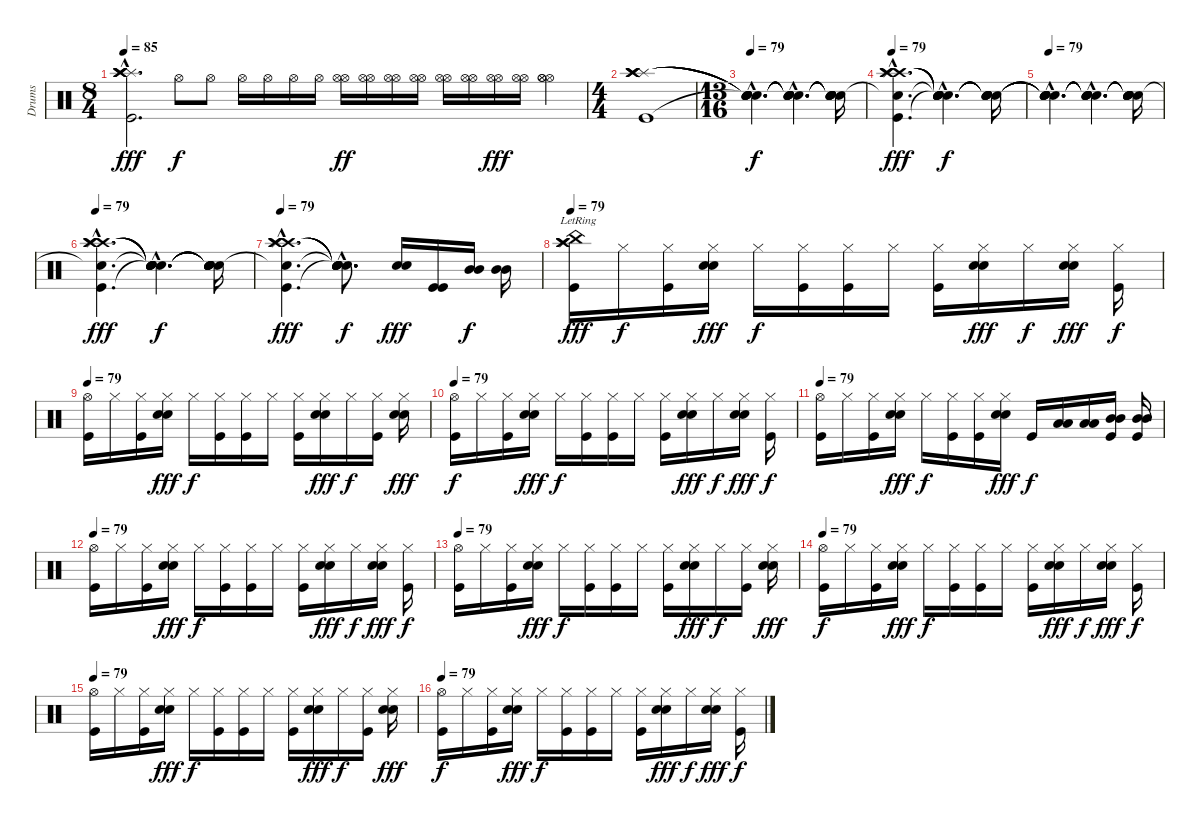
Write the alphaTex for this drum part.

\track ("Drums" "Drums") {instrument percussion}
\staff {score}
\articulation defaults
\ts (8 4)
\tempo 85
\clef neutral
\ks c
("Splash (hit)"{hac} "Crash high (hit)"{hac} "Crash high (hit)"{hac} "Crash high (hit)"{hac} "Kick (hit)"{hac}).2{d dy fff} "Hi-Hat (open)".8{dy f volume 1} "Hi-Hat (open)".8{volume 16} "Hi-Hat (open)".16 "Hi-Hat (open)".16 "Hi-Hat (open)".16 "Hi-Hat (open)".16 ("Hi-Hat (open)" "Hi-Hat (open)").16{dy ff} ("Hi-Hat (open)" "Hi-Hat (open)").16 ("Hi-Hat (open)" "Hi-Hat (open)").16 ("Hi-Hat (open)" "Hi-Hat (open)").16 ("Hi-Hat (open)" "Hi-Hat (open)").16 ("Hi-Hat (open)" "Hi-Hat (open)").16 ("Hi-Hat (open)" "Hi-Hat (open)").16{dy fff} ("Hi-Hat (open)" "Hi-Hat (open)").16 ("Hi-Hat (open)" "Hi-Hat (open)" "Hi-Hat (open)").4 |
\ts (4 4)
("Splash (hit)" "Crash high (hit)" "Crash high (hit)" "Crash high (hit)" "Kick (hit)").1 |
\ts (13 16)
\tempo 79
("Snare (hit)"{hac t} "Snare (hit)"{hac t} "Snare (hit)"{hac t} "Snare (hit)"{hac t} "Snare (hit)"{hac t} "Snare (hit)"{hac}).4{d dy f} ("Snare (hit)"{hac t} "Snare (hit)"{hac t} "Snare (hit)"{hac t} "Snare (hit)"{hac t} "Snare (hit)"{hac t} "Snare (hit)"{hac t}).4{d} ("Snare (hit)"{t} "Snare (hit)"{t} "Snare (hit)"{t} "Snare (hit)"{t} "Snare (hit)"{t} "Snare (hit)"{t}).16 |
\tempo 79
("Crash high (hit)"{hac} "Crash high (hit)"{hac} "Crash high (hit)"{hac} "Splash (hit)"{hac} "Snare (hit)"{hac t} "Kick (hit)"{hac}).4{d dy fff} ("Snare (hit)"{hac t} "Snare (hit)"{hac t} "Snare (hit)"{hac t} "Snare (hit)"{hac t} "Snare (hit)"{hac t} "Snare (hit)"{hac t}).4{d dy f} ("Snare (hit)"{t} "Snare (hit)"{t} "Snare (hit)"{t} "Snare (hit)"{t} "Snare (hit)"{t} "Snare (hit)"{t}).16 |
\tempo 79
("Snare (hit)"{hac t} "Snare (hit)"{hac t} "Snare (hit)"{hac t} "Snare (hit)"{hac t} "Snare (hit)"{hac t} "Snare (hit)"{hac t}).4{d} ("Snare (hit)"{hac t} "Snare (hit)"{hac t} "Snare (hit)"{hac t} "Snare (hit)"{hac t} "Snare (hit)"{hac t} "Snare (hit)"{hac t}).4{d} ("Snare (hit)"{t} "Snare (hit)"{t} "Snare (hit)"{t} "Snare (hit)"{t} "Snare (hit)"{t} "Snare (hit)"{t}).16 |
\tempo 79
("Crash high (hit)"{hac} "Crash high (hit)"{hac} "Crash high (hit)"{hac} "Splash (hit)"{hac} "Snare (hit)"{hac t} "Kick (hit)"{hac}).4{d dy fff} ("Snare (hit)"{hac t} "Snare (hit)"{hac t} "Snare (hit)"{hac t} "Snare (hit)"{hac t} "Snare (hit)"{hac t} "Snare (hit)"{hac t}).4{d dy f} ("Snare (hit)"{t} "Snare (hit)"{t} "Snare (hit)"{t} "Snare (hit)"{t} "Snare (hit)"{t} "Snare (hit)"{t}).16 |
\tempo 79
("Crash high (hit)"{hac} "Crash high (hit)"{hac} "Crash high (hit)"{hac} "Splash (hit)"{hac} "Snare (hit)"{hac t} "Kick (hit)"{hac}).4{d dy fff} ("Snare (hit)"{hac t} "Snare (hit)"{hac t} "Snare (hit)"{hac t} "Snare (hit)"{hac t} "Snare (hit)"{hac t} "Snare (hit)"{hac t}).8{d dy f} ("Electric Snare (hit)" "Electric Snare (hit)").16{dy fff} ("Kick (hit)" "Kick (hit)").16 ("Mid Tom (hit)" "Mid Tom (hit)").16{dy f} ("Mid Tom (hit)" "Mid Tom (hit)").16 |
\tempo 79
("Crash high (hit)" "Splash (hit)"{lr} "Crash high (hit)"{lr} "China (hit)" "Kick (hit)").16{dy fff} "Hi-Hat (closed)".16{dy f} ("Hi-Hat (closed)" "Kick (hit)").16 ("Hi-Hat (closed)" "Electric Snare (hit)" "Electric Snare (hit)").16{dy fff} "Hi-Hat (closed)".16{dy f} ("Hi-Hat (closed)" "Kick (hit)").16 ("Hi-Hat (closed)" "Kick (hit)").16 "Hi-Hat (closed)".16 ("Hi-Hat (closed)" "Kick (hit)").16 ("Hi-Hat (closed)" "Electric Snare (hit)" "Electric Snare (hit)").16{dy fff} "Hi-Hat (closed)".16{dy f} ("Hi-Hat (closed)" "Electric Snare (hit)" "Electric Snare (hit)").16{dy fff} ("Hi-Hat (closed)" "Kick (hit)").16{dy f} |
\tempo 79
("Hi-Hat (open)" "Kick (hit)").16 "Hi-Hat (closed)".16 ("Hi-Hat (closed)" "Kick (hit)").16 ("Hi-Hat (closed)" "Electric Snare (hit)" "Electric Snare (hit)").16{dy fff} "Hi-Hat (closed)".16{dy f} ("Hi-Hat (closed)" "Kick (hit)").16 ("Hi-Hat (closed)" "Kick (hit)").16 "Hi-Hat (closed)".16 ("Hi-Hat (closed)" "Kick (hit)").16 ("Hi-Hat (closed)" "Electric Snare (hit)" "Electric Snare (hit)").16{dy fff} "Hi-Hat (closed)".16{dy f} ("Hi-Hat (closed)" "Kick (hit)").16 ("Hi-Hat (closed)" "Electric Snare (hit)" "Electric Snare (hit)").16{dy fff} |
\tempo 79
("Hi-Hat (open)" "Kick (hit)").16{dy f} "Hi-Hat (closed)".16 ("Hi-Hat (closed)" "Kick (hit)").16 ("Hi-Hat (closed)" "Electric Snare (hit)" "Electric Snare (hit)").16{dy fff} "Hi-Hat (closed)".16{dy f} ("Hi-Hat (closed)" "Kick (hit)").16 ("Hi-Hat (closed)" "Kick (hit)").16 "Hi-Hat (closed)".16 ("Hi-Hat (closed)" "Kick (hit)").16 ("Hi-Hat (closed)" "Electric Snare (hit)" "Electric Snare (hit)").16{dy fff} "Hi-Hat (closed)".16{dy f} ("Hi-Hat (closed)" "Electric Snare (hit)" "Electric Snare (hit)").16{dy fff} ("Hi-Hat (closed)" "Kick (hit)").16{dy f} |
\tempo 79
("Hi-Hat (open)" "Kick (hit)").16 "Hi-Hat (closed)".16 ("Hi-Hat (closed)" "Kick (hit)").16 ("Hi-Hat (closed)" "Electric Snare (hit)" "Electric Snare (hit)").16{dy fff} "Hi-Hat (closed)".16{dy f} ("Hi-Hat (closed)" "Kick (hit)").16 ("Hi-Hat (closed)" "Kick (hit)").16 ("Hi-Hat (closed)" "Electric Snare (hit)" "Electric Snare (hit)").16{dy fff} "Kick (hit)".16{dy f} ("Low Floor Tom (hit)" "Low Floor Tom (hit)").16 ("Low Floor Tom (hit)" "Low Floor Tom (hit)").16 ("Mid Tom (hit)" "Mid Tom (hit)" "Kick (hit)").16 ("Mid Tom (hit)" "Mid Tom (hit)" "Kick (hit)").16 |
\tempo 79
("Hi-Hat (open)" "Kick (hit)").16 "Hi-Hat (closed)".16 ("Hi-Hat (closed)" "Kick (hit)").16 ("Hi-Hat (closed)" "Electric Snare (hit)" "Electric Snare (hit)").16{dy fff} "Hi-Hat (closed)".16{dy f} ("Hi-Hat (closed)" "Kick (hit)").16 ("Hi-Hat (closed)" "Kick (hit)").16 "Hi-Hat (closed)".16 ("Hi-Hat (closed)" "Kick (hit)").16 ("Hi-Hat (closed)" "Electric Snare (hit)" "Electric Snare (hit)").16{dy fff} "Hi-Hat (closed)".16{dy f} ("Hi-Hat (closed)" "Electric Snare (hit)" "Electric Snare (hit)").16{dy fff} ("Hi-Hat (closed)" "Kick (hit)").16{dy f} |
\tempo 79
("Hi-Hat (open)" "Kick (hit)").16 "Hi-Hat (closed)".16 ("Hi-Hat (closed)" "Kick (hit)").16 ("Hi-Hat (closed)" "Electric Snare (hit)" "Electric Snare (hit)").16{dy fff} "Hi-Hat (closed)".16{dy f} ("Hi-Hat (closed)" "Kick (hit)").16 ("Hi-Hat (closed)" "Kick (hit)").16 "Hi-Hat (closed)".16 ("Hi-Hat (closed)" "Kick (hit)").16 ("Hi-Hat (closed)" "Electric Snare (hit)" "Electric Snare (hit)").16{dy fff} "Hi-Hat (closed)".16{dy f} ("Hi-Hat (closed)" "Kick (hit)").16 ("Hi-Hat (closed)" "Electric Snare (hit)" "Electric Snare (hit)").16{dy fff} |
\tempo 79
("Hi-Hat (open)" "Kick (hit)").16{dy f} "Hi-Hat (closed)".16 ("Hi-Hat (closed)" "Kick (hit)").16 ("Hi-Hat (closed)" "Electric Snare (hit)" "Electric Snare (hit)").16{dy fff} "Hi-Hat (closed)".16{dy f} ("Hi-Hat (closed)" "Kick (hit)").16 ("Hi-Hat (closed)" "Kick (hit)").16 "Hi-Hat (closed)".16 ("Hi-Hat (closed)" "Kick (hit)").16 ("Hi-Hat (closed)" "Electric Snare (hit)" "Electric Snare (hit)").16{dy fff} "Hi-Hat (closed)".16{dy f} ("Hi-Hat (closed)" "Electric Snare (hit)" "Electric Snare (hit)").16{dy fff} ("Hi-Hat (closed)" "Kick (hit)").16{dy f} |
\tempo 79
("Hi-Hat (open)" "Kick (hit)").16 "Hi-Hat (closed)".16 ("Hi-Hat (closed)" "Kick (hit)").16 ("Hi-Hat (closed)" "Electric Snare (hit)" "Electric Snare (hit)").16{dy fff} "Hi-Hat (closed)".16{dy f} ("Hi-Hat (closed)" "Kick (hit)").16 ("Hi-Hat (closed)" "Kick (hit)").16 "Hi-Hat (closed)".16 ("Hi-Hat (closed)" "Kick (hit)").16 ("Hi-Hat (closed)" "Electric Snare (hit)" "Electric Snare (hit)").16{dy fff} "Hi-Hat (closed)".16{dy f} ("Hi-Hat (closed)" "Kick (hit)").16 ("Hi-Hat (closed)" "Electric Snare (hit)" "Electric Snare (hit)").16{dy fff} |
\tempo 79
("Hi-Hat (open)" "Kick (hit)").16{dy f} "Hi-Hat (closed)".16 ("Hi-Hat (closed)" "Kick (hit)").16 ("Hi-Hat (closed)" "Electric Snare (hit)" "Electric Snare (hit)").16{dy fff} "Hi-Hat (closed)".16{dy f} ("Hi-Hat (closed)" "Kick (hit)").16 ("Hi-Hat (closed)" "Kick (hit)").16 "Hi-Hat (closed)".16 ("Hi-Hat (closed)" "Kick (hit)").16 ("Hi-Hat (closed)" "Electric Snare (hit)" "Electric Snare (hit)").16{dy fff} "Hi-Hat (closed)".16{dy f} ("Hi-Hat (closed)" "Electric Snare (hit)" "Electric Snare (hit)").16{dy fff} ("Hi-Hat (closed)" "Kick (hit)").16{dy f}
